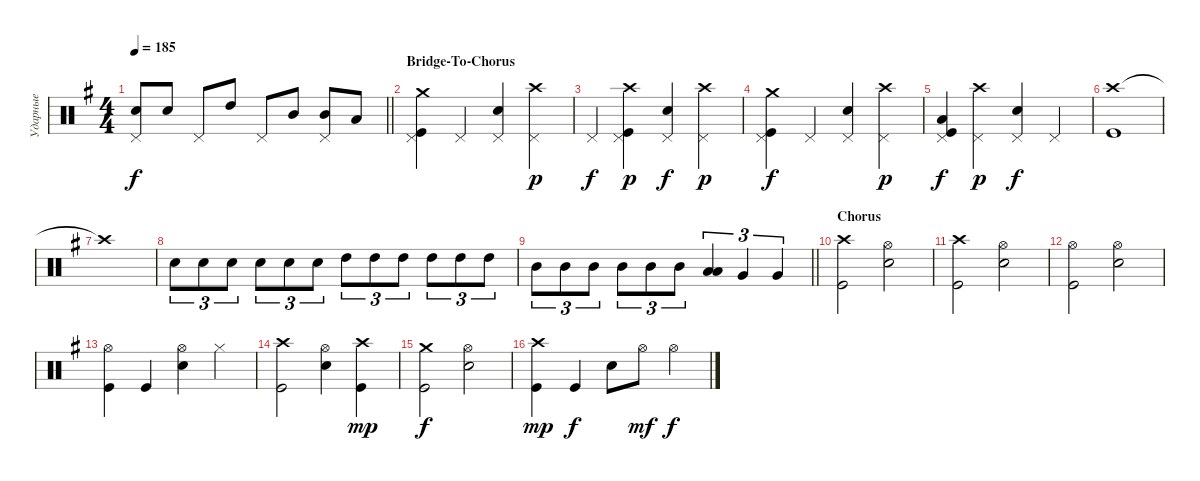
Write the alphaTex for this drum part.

\track ("Ударные" "Ударные") {instrument percussion}
\staff {score}
\articulation defaults
\ts (4 4)
\tempo 185
\clef neutral
\barLineRight lightlight
\ks eminor
("Snare (hit) 2" "Pedal Hi-Hat (hit)").8{dy f} "Snare (hit) 2".8 "Pedal Hi-Hat (hit)".8 "High Tom (hit)".8 "Pedal Hi-Hat (hit)".8 "Mid Tom (hit)".8 ("Mid Tom (hit)" "Pedal Hi-Hat (hit)").8 "Low Tom (hit)".8 |
\section ("" "Bridge-To-Chorus")
("Kick (hit)" "Crash medium (hit)" "Pedal Hi-Hat (hit)").4 "Pedal Hi-Hat (hit)".4 ("Snare (hit) 2" "Pedal Hi-Hat (hit)").4 ("Crash high (hit)" "Pedal Hi-Hat (hit)").4{dy p} |
"Pedal Hi-Hat (hit)".4{dy f} ("Crash high (hit)" "Pedal Hi-Hat (hit)" "Kick (hit)").4{dy p} ("Snare (hit) 2" "Pedal Hi-Hat (hit)").4{dy f} ("Crash high (hit)" "Pedal Hi-Hat (hit)").4{dy p} |
("Kick (hit)" "Crash medium (hit)" "Pedal Hi-Hat (hit)").4{dy f} "Pedal Hi-Hat (hit)".4 ("Snare (hit) 2" "Pedal Hi-Hat (hit)").4 ("Crash high (hit)" "Pedal Hi-Hat (hit)").4{dy p} |
("Kick (hit)" "Pedal Hi-Hat (hit)" "Low Tom (hit)").4{dy f} ("Crash high (hit)" "Pedal Hi-Hat (hit)").4{dy p} ("Snare (hit) 2" "Pedal Hi-Hat (hit)").4{dy f} "Pedal Hi-Hat (hit)".4 |
("Crash high (hit)" "Kick (hit)").1 |
"Crash high (hit)"{t}.1 |
"Snare (hit) 2".8{tu (3 2)} "Snare (hit) 2".8{tu (3 2)} "Snare (hit) 2".8{tu (3 2)} "Snare (hit) 2".8{tu (3 2)} "Snare (hit) 2".8{tu (3 2)} "Snare (hit) 2".8{tu (3 2)} "High Tom (hit)".8{tu (3 2)} "High Tom (hit)".8{tu (3 2)} "High Tom (hit)".8{tu (3 2)} "High Tom (hit)".8{tu (3 2)} "High Tom (hit)".8{tu (3 2)} "High Tom (hit)".8{tu (3 2)} |
\barLineRight lightlight "Mid Tom (hit)".8{tu (3 2)} "Mid Tom (hit)".8{tu (3 2)} "Mid Tom (hit)".8{tu (3 2)} "Mid Tom (hit)".8{tu (3 2)} "Mid Tom (hit)".8{tu (3 2)} "Mid Tom (hit)".8{tu (3 2)}
("Low Tom (hit)" "Low Tom (hit)").4{tu (3 2) bd 240} "Very Low Tom (hit)".4{tu (3 2)} "Very Low Tom (hit)".4{tu (3 2)} |
\section ("" "Chorus")
("Kick (hit)" "Crash high (hit)").2 ("Snare (hit) 2" "Hi-Hat (open)").2 |
("Kick (hit)" "Crash high (hit)").2 ("Snare (hit) 2" "Hi-Hat (open)").2 |
("Kick (hit)" "Hi-Hat (open)").2 ("Snare (hit) 2" "Hi-Hat (open)").2 |
("Kick (hit)" "Hi-Hat (open)").4 "Kick (hit)".4 ("Snare (hit) 2" "Hi-Hat (open)").4 "Hi-Hat (closed)".4 |
("Kick (hit)" "Crash high (hit)").2 ("Snare (hit) 2" "Hi-Hat (open)").4 ("Kick (hit)" "Crash high (hit)").4{dy mp} |
("Kick (hit)" "Crash medium (hit)").2{dy f} ("Snare (hit) 2" "Hi-Hat (open)").2 |
("Kick (hit)" "Crash high (hit)").4{dy mp} "Kick (hit)".4{dy f} "Snare (hit) 2".8 "Hi-Hat (open)".8{dy mf} "Hi-Hat (open)".4{dy f}
